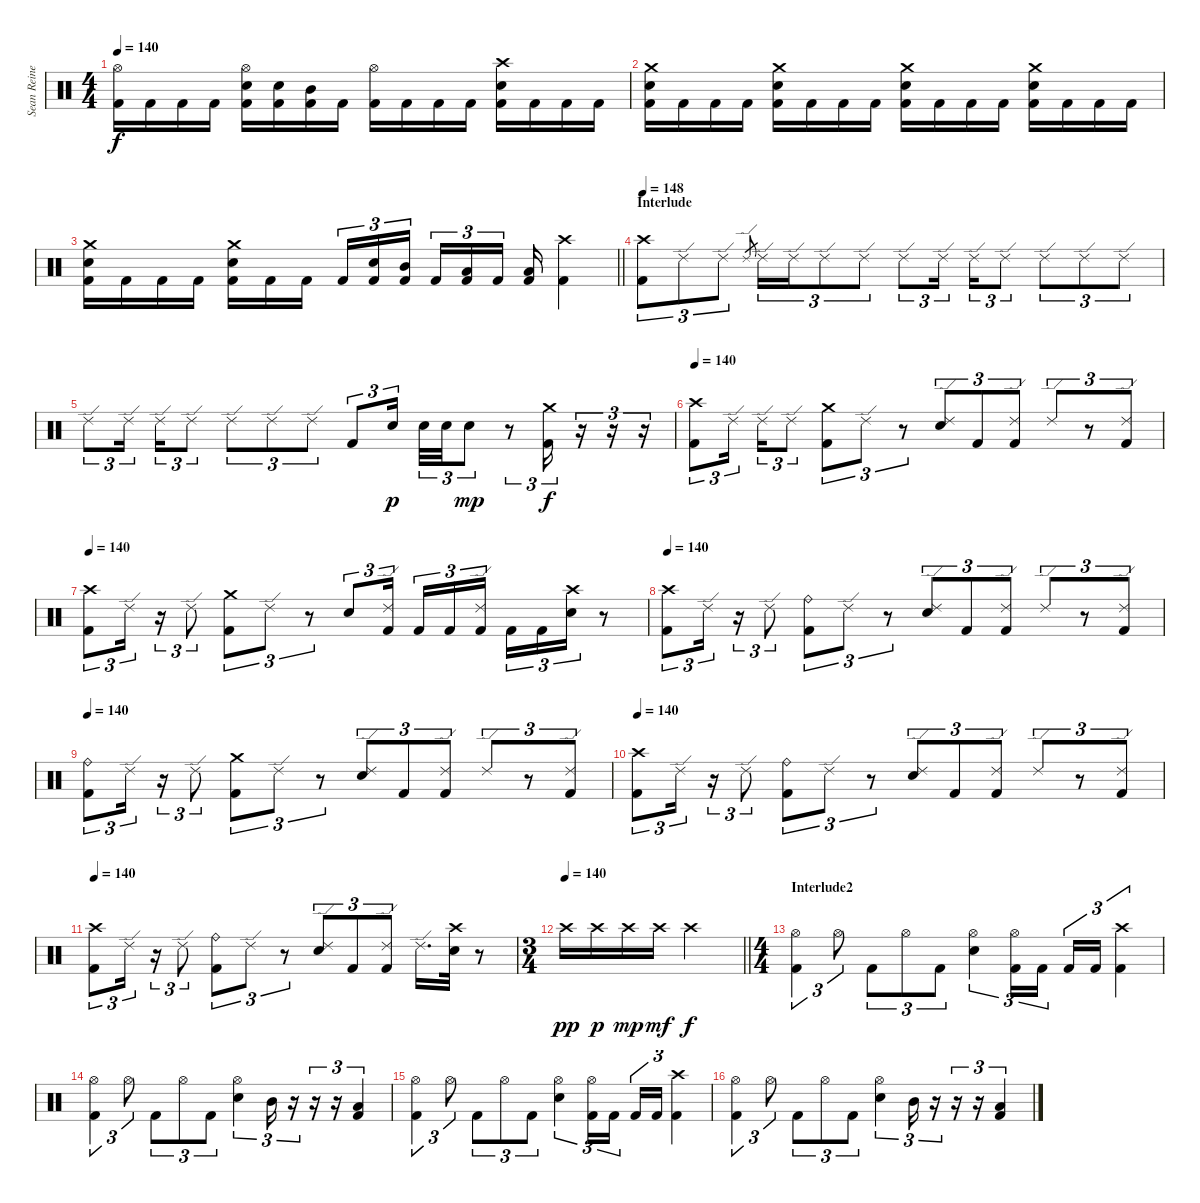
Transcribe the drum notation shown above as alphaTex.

\track ("Sean Reinert" "Sean Reine") {instrument percussion}
\staff {score}
\articulation defaults
\ts (4 4)
\tempo 140
\clef neutral
\ks c
("Hi-Hat (open)" "Kick (hit) 2").16{dy f} "Kick (hit) 2".16 "Kick (hit) 2".16 "Kick (hit) 2".16 ("Hi-Hat (open)" "Electric Snare (hit)" "Kick (hit) 2").16 ("Electric Snare (hit)" "Kick (hit) 2").16 ("Mid Tom (hit)" "Kick (hit) 2").16 "Kick (hit) 2".16 ("Hi-Hat (open)" "Kick (hit) 2").16 "Kick (hit) 2".16 "Kick (hit) 2".16 "Kick (hit) 2".16 ("Crash high (hit)" "Electric Snare (hit)" "Kick (hit) 2").16 "Kick (hit) 2".16 "Kick (hit) 2".16 "Kick (hit) 2".16 |
("Crash medium (hit)" "Electric Snare (hit)" "Kick (hit) 2").16 "Kick (hit) 2".16 "Kick (hit) 2".16 "Kick (hit) 2".16 ("Crash medium (hit)" "Electric Snare (hit)" "Kick (hit) 2").16 "Kick (hit) 2".16 "Kick (hit) 2".16 "Kick (hit) 2".16 ("Crash medium (hit)" "Electric Snare (hit)" "Kick (hit) 2").16 "Kick (hit) 2".16 "Kick (hit) 2".16 "Kick (hit) 2".16 ("Crash medium (hit)" "Electric Snare (hit)" "Kick (hit) 2").16 "Kick (hit) 2".16 "Kick (hit) 2".16 "Kick (hit) 2".16 |
\barLineRight lightlight
("Crash medium (hit)" "Electric Snare (hit)" "Kick (hit) 2").16 "Kick (hit) 2".16 "Kick (hit) 2".16 "Kick (hit) 2".16 ("Crash medium (hit)" "Electric Snare (hit)" "Kick (hit) 2").16 "Kick (hit) 2".16 "Kick (hit) 2".16{beam splitsecondary} "Kick (hit) 2".16{tu (3 2)} ("Electric Snare (hit)" "Kick (hit) 2").16{tu (3 2)} ("Mid Tom (hit)" "Kick (hit) 2").16{tu (3 2) beam splitsecondary} "Kick (hit) 2".16{tu (3 2)} ("Low Tom (hit)" "Kick (hit) 2").16{tu (3 2)} "Kick (hit) 2".16{tu (3 2) beam splitsecondary} ("Low Tom (hit)" "Kick (hit) 2").16 ("Crash high (hit)" "Kick (hit) 2").4 |
\section ("" "Interlude")
\tempo 148
("Crash high (hit)" "Kick (hit) 2").8{tu (3 2)} "Ride (edge) 2".8{tu (3 2)} "Ride (edge) 2".8{tu (3 2)} "Ride (edge) 2".8{gr} "Ride (edge) 2".16{tu (3 2)} "Ride (edge) 2".16{tu (3 2)} "Ride (edge) 2".8{tu (3 2)} "Ride (edge) 2".8{tu (3 2)} "Ride (edge) 2".8{tu (3 2)} "Ride (edge) 2".16{tu (3 2) beam splitsecondary} "Ride (edge) 2".16{tu (3 2)} "Ride (edge) 2".8{tu (3 2)} "Ride (edge) 2".8{tu (3 2)} "Ride (edge) 2".8{tu (3 2)} "Ride (edge) 2".8{tu (3 2)} |
"Ride (edge) 2".8{tu (3 2)} "Ride (edge) 2".16{tu (3 2) beam splitsecondary} "Ride (edge) 2".16{tu (3 2)} "Ride (edge) 2".8{tu (3 2)} "Ride (edge) 2".8{tu (3 2)} "Ride (edge) 2".8{tu (3 2)} "Ride (edge) 2".8{tu (3 2)} "Kick (hit) 2".8{tu (3 2)} "Electric Snare (hit)".16{tu (3 2) dy p beam splitsecondary} "Electric Snare (hit)".32{tu (3 2)} "Electric Snare (hit)".32{tu (3 2)} "Electric Snare (hit)".8{tu (3 2) dy mp} r.8{tu (3 2)} ("Crash medium (hit)" "Kick (hit) 2").16{tu (3 2) dy f} r.16{tu (3 2)} r.16{tu (3 2)} r.16{tu (3 2)} |
\tempo 140
("Crash high (hit)" "Kick (hit) 2").8{tu (3 2)} "Ride (edge) 2".16{tu (3 2) beam splitsecondary} "Ride (edge) 2".16{tu (3 2)} "Ride (edge) 2".8{tu (3 2)} ("Crash medium (hit)" "Kick (hit) 2").8{tu (3 2)} "Ride (edge) 2".8{tu (3 2)} r.8{tu (3 2)} ("Ride (edge) 2" "Electric Snare (hit)").8{tu (3 2)} "Kick (hit) 2".8{tu (3 2)} ("Ride (edge) 2" "Kick (hit) 2").8{tu (3 2)} "Ride (edge) 2".8{tu (3 2)} r.8{tu (3 2)} ("Ride (edge) 2" "Kick (hit) 2").8{tu (3 2)} |
\tempo 140
("Crash high (hit)" "Kick (hit) 2").8{tu (3 2)} "Ride (edge) 2".16{tu (3 2)} r.16{tu (3 2)} "Ride (edge) 2".8{tu (3 2)} ("Crash medium (hit)" "Kick (hit) 2").8{tu (3 2)} "Ride (edge) 2".8{tu (3 2)} r.8{tu (3 2)} "Electric Snare (hit)".8{tu (3 2)} ("Ride (edge) 2" "Kick (hit) 2").16{tu (3 2) beam splitsecondary} "Kick (hit) 2".16{tu (3 2)} "Kick (hit) 2".16{tu (3 2)} ("Ride (edge) 2" "Kick (hit) 2").16{tu (3 2)} "Kick (hit) 2".16{tu (3 2)} "Kick (hit) 2".16{tu (3 2)} ("Crash high (hit)" "Electric Snare (hit)").16{tu (3 2)} r.8 |
\tempo 140
("Crash high (hit)" "Kick (hit) 2").8{tu (3 2)} "Ride (edge) 2".16{tu (3 2)} r.16{tu (3 2)} "Ride (edge) 2".8{tu (3 2)} ("Ride (bell)" "Kick (hit) 2").8{tu (3 2)} "Ride (edge) 2".8{tu (3 2)} r.8{tu (3 2)} ("Ride (edge) 2" "Electric Snare (hit)").8{tu (3 2)} "Kick (hit) 2".8{tu (3 2)} ("Ride (edge) 2" "Kick (hit) 2").8{tu (3 2)} "Ride (edge) 2".8{tu (3 2)} r.8{tu (3 2)} ("Ride (edge) 2" "Kick (hit) 2").8{tu (3 2)} |
\tempo 140
("Ride (bell)" "Kick (hit) 2").8{tu (3 2)} "Ride (edge) 2".16{tu (3 2)} r.16{tu (3 2)} "Ride (edge) 2".8{tu (3 2)} ("Crash medium (hit)" "Kick (hit) 2").8{tu (3 2)} "Ride (edge) 2".8{tu (3 2)} r.8{tu (3 2)} ("Ride (edge) 2" "Electric Snare (hit)").8{tu (3 2)} "Kick (hit) 2".8{tu (3 2)} ("Ride (edge) 2" "Kick (hit) 2").8{tu (3 2)} "Ride (edge) 2".8{tu (3 2)} r.8{tu (3 2)} ("Ride (edge) 2" "Kick (hit) 2").8{tu (3 2)} |
\tempo 140
("Crash high (hit)" "Kick (hit) 2").8{tu (3 2)} "Ride (edge) 2".16{tu (3 2)} r.16{tu (3 2)} "Ride (edge) 2".8{tu (3 2)} ("Ride (bell)" "Kick (hit) 2").8{tu (3 2)} "Ride (edge) 2".8{tu (3 2)} r.8{tu (3 2)} ("Ride (edge) 2" "Electric Snare (hit)").8{tu (3 2)} "Kick (hit) 2".8{tu (3 2)} ("Ride (edge) 2" "Kick (hit) 2").8{tu (3 2)} "Ride (edge) 2".8{tu (3 2)} r.8{tu (3 2)} ("Ride (edge) 2" "Kick (hit) 2").8{tu (3 2)} |
\tempo 140
("Crash high (hit)" "Kick (hit) 2").8{tu (3 2)} "Ride (edge) 2".16{tu (3 2)} r.16{tu (3 2)} "Ride (edge) 2".8{tu (3 2)} ("Ride (bell)" "Kick (hit) 2").8{tu (3 2)} "Ride (edge) 2".8{tu (3 2)} r.8{tu (3 2)} ("Ride (edge) 2" "Electric Snare (hit)").8{tu (3 2)} "Kick (hit) 2".8{tu (3 2)} ("Ride (edge) 2" "Kick (hit) 2").8{tu (3 2)} "Ride (edge) 2".16{d} ("Crash high (hit)" "Electric Snare (hit)").32 r.8 |
\ts (3 4)
\tempo 140
\barLineRight lightlight "Crash high (hit)".16{dy pp} "Crash high (hit)".16{dy p} "Crash high (hit)".16{dy mp} "Crash high (hit)".16{dy mf} "Crash high (hit)".2{dy f}
|
\ts (4 4)
\section ("" "Interlude2")
("Hi-Hat (open)" "Kick (hit) 2").4{tu (3 2)} "Hi-Hat (open)".8{tu (3 2)} "Kick (hit) 2".8{tu (3 2)} "Hi-Hat (open)".8{tu (3 2)} "Kick (hit) 2".8{tu (3 2)} ("Hi-Hat (open)" "Electric Snare (hit)").4{tu (3 2)} ("Hi-Hat (open)" "Kick (hit) 2").16{tu (3 2)} "Kick (hit) 2".16{tu (3 2)} "Kick (hit) 2".16{tu (3 2)} "Kick (hit) 2".16{tu (3 2)} ("Crash high (hit)" "Kick (hit) 2").4{tu (3 2)} |
("Hi-Hat (open)" "Kick (hit) 2").4{tu (3 2)} "Hi-Hat (open)".8{tu (3 2)} "Kick (hit) 2".8{tu (3 2)} "Hi-Hat (open)".8{tu (3 2)} "Kick (hit) 2".8{tu (3 2)} ("Hi-Hat (open)" "Electric Snare (hit)").4{tu (3 2)} "Mid Tom (hit)".16{tu (3 2)} r.16{tu (3 2)} r.16{tu (3 2)} r.16{tu (3 2)} ("Low Tom (hit)" "Kick (hit) 2").4{tu (3 2)} |
("Hi-Hat (open)" "Kick (hit) 2").4{tu (3 2)} "Hi-Hat (open)".8{tu (3 2)} "Kick (hit) 2".8{tu (3 2)} "Hi-Hat (open)".8{tu (3 2)} "Kick (hit) 2".8{tu (3 2)} ("Hi-Hat (open)" "Electric Snare (hit)").4{tu (3 2)} ("Hi-Hat (open)" "Kick (hit) 2").16{tu (3 2)} "Kick (hit) 2".16{tu (3 2)} "Kick (hit) 2".16{tu (3 2)} "Kick (hit) 2".16{tu (3 2)} ("Crash high (hit)" "Kick (hit) 2").4{tu (3 2)} |
("Hi-Hat (open)" "Kick (hit) 2").4{tu (3 2)} "Hi-Hat (open)".8{tu (3 2)} "Kick (hit) 2".8{tu (3 2)} "Hi-Hat (open)".8{tu (3 2)} "Kick (hit) 2".8{tu (3 2)} ("Hi-Hat (open)" "Electric Snare (hit)").4{tu (3 2)} "Mid Tom (hit)".16{tu (3 2)} r.16{tu (3 2)} r.16{tu (3 2)} r.16{tu (3 2)} ("Low Tom (hit)" "Kick (hit) 2").4{tu (3 2)}
